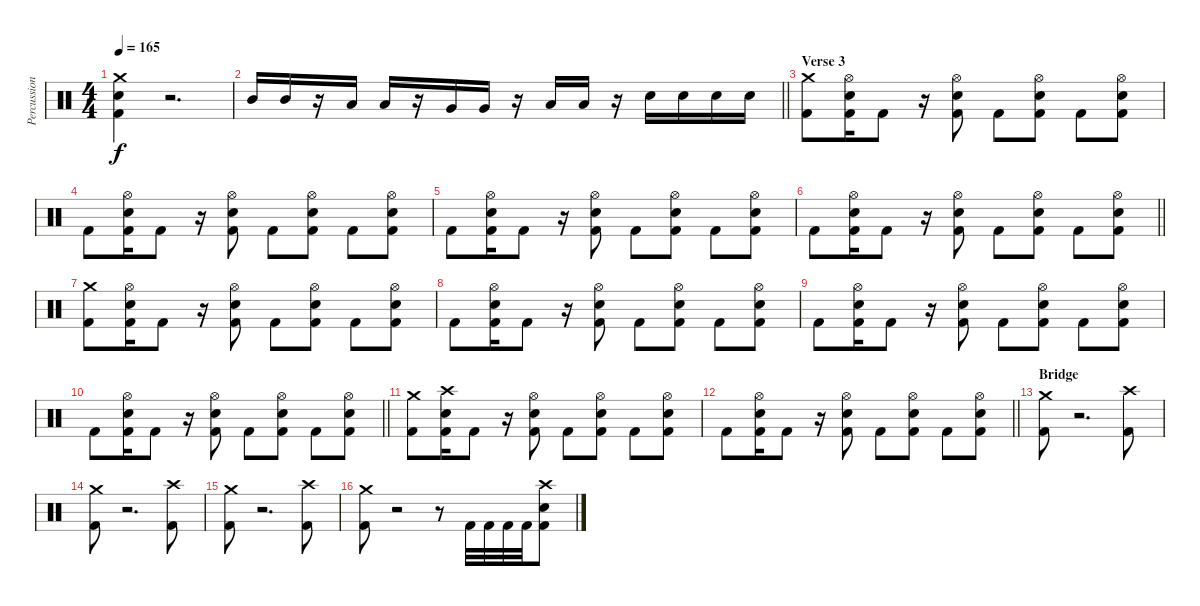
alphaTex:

\track ("Percussion" "Percussion") {instrument percussion}
\staff {score}
\articulation defaults
\ts (4 4)
\tempo 165
\clef neutral
\ks c
("Crash medium (hit)" "Kick (hit) 2" "Snare (hit) 2").4{dy f} r.2{d} |
\barLineRight lightlight "Mid Tom (hit)".16 "Mid Tom (hit)".16
r.16 "Low Tom (hit)".16 "Low Tom (hit)".16 r.16 "Very Low Tom (hit)".16 "Very Low Tom (hit)".16 r.16 "Low Floor Tom (hit)".16 "Low Floor Tom (hit)".16 r.16 "Snare (hit) 2".16 "Snare (hit) 2".16 "Snare (hit) 2".16 "Snare (hit) 2".16 |
\section ("" "Verse 3")
("Crash medium (hit)" "Kick (hit) 2").8 ("Hi-Hat (open)" "Kick (hit) 2" "Snare (hit) 2").16 "Kick (hit) 2".8 r.16 ("Hi-Hat (open)" "Kick (hit) 2" "Snare (hit) 2").8 "Kick (hit) 2".8 ("Hi-Hat (open)" "Kick (hit) 2" "Snare (hit) 2").8 "Kick (hit) 2".8 ("Hi-Hat (open)" "Kick (hit) 2" "Snare (hit) 2").8 |
"Kick (hit) 2".8 ("Hi-Hat (open)" "Kick (hit) 2" "Snare (hit) 2").16 "Kick (hit) 2".8 r.16 ("Hi-Hat (open)" "Kick (hit) 2" "Snare (hit) 2").8 "Kick (hit) 2".8 ("Hi-Hat (open)" "Kick (hit) 2" "Snare (hit) 2").8 "Kick (hit) 2".8 ("Hi-Hat (open)" "Kick (hit) 2" "Snare (hit) 2").8 |
"Kick (hit) 2".8 ("Hi-Hat (open)" "Kick (hit) 2" "Snare (hit) 2").16 "Kick (hit) 2".8 r.16 ("Hi-Hat (open)" "Kick (hit) 2" "Snare (hit) 2").8 "Kick (hit) 2".8 ("Hi-Hat (open)" "Kick (hit) 2" "Snare (hit) 2").8 "Kick (hit) 2".8 ("Hi-Hat (open)" "Kick (hit) 2" "Snare (hit) 2").8 |
\barLineRight lightlight "Kick (hit) 2".8
("Hi-Hat (open)" "Kick (hit) 2" "Snare (hit) 2").16 "Kick (hit) 2".8 r.16 ("Hi-Hat (open)" "Kick (hit) 2" "Snare (hit) 2").8 "Kick (hit) 2".8 ("Hi-Hat (open)" "Kick (hit) 2" "Snare (hit) 2").8 "Kick (hit) 2".8 ("Hi-Hat (open)" "Kick (hit) 2" "Snare (hit) 2").8 |
("Crash medium (hit)" "Kick (hit) 2").8 ("Hi-Hat (open)" "Kick (hit) 2" "Snare (hit) 2").16 "Kick (hit) 2".8 r.16 ("Hi-Hat (open)" "Kick (hit) 2" "Snare (hit) 2").8 "Kick (hit) 2".8 ("Hi-Hat (open)" "Kick (hit) 2" "Snare (hit) 2").8 "Kick (hit) 2".8 ("Hi-Hat (open)" "Kick (hit) 2" "Snare (hit) 2").8 |
"Kick (hit) 2".8 ("Hi-Hat (open)" "Kick (hit) 2" "Snare (hit) 2").16 "Kick (hit) 2".8 r.16 ("Hi-Hat (open)" "Kick (hit) 2" "Snare (hit) 2").8 "Kick (hit) 2".8 ("Hi-Hat (open)" "Kick (hit) 2" "Snare (hit) 2").8 "Kick (hit) 2".8 ("Hi-Hat (open)" "Kick (hit) 2" "Snare (hit) 2").8 |
"Kick (hit) 2".8 ("Hi-Hat (open)" "Kick (hit) 2" "Snare (hit) 2").16 "Kick (hit) 2".8 r.16 ("Hi-Hat (open)" "Kick (hit) 2" "Snare (hit) 2").8 "Kick (hit) 2".8 ("Hi-Hat (open)" "Kick (hit) 2" "Snare (hit) 2").8 "Kick (hit) 2".8 ("Hi-Hat (open)" "Kick (hit) 2" "Snare (hit) 2").8 |
\barLineRight lightlight "Kick (hit) 2".8
("Hi-Hat (open)" "Kick (hit) 2" "Snare (hit) 2").16 "Kick (hit) 2".8 r.16 ("Hi-Hat (open)" "Kick (hit) 2" "Snare (hit) 2").8 "Kick (hit) 2".8 ("Hi-Hat (open)" "Kick (hit) 2" "Snare (hit) 2").8 "Kick (hit) 2".8 ("Hi-Hat (open)" "Kick (hit) 2" "Snare (hit) 2").8 |
("Crash medium (hit)" "Kick (hit) 2").8 ("Crash high (hit)" "Kick (hit) 2" "Snare (hit) 2").16 "Kick (hit) 2".8 r.16 ("Hi-Hat (open)" "Kick (hit) 2" "Snare (hit) 2").8 "Kick (hit) 2".8 ("Hi-Hat (open)" "Kick (hit) 2" "Snare (hit) 2").8 "Kick (hit) 2".8 ("Hi-Hat (open)" "Kick (hit) 2" "Snare (hit) 2").8 |
\barLineRight lightlight "Kick (hit) 2".8
("Hi-Hat (open)" "Kick (hit) 2" "Snare (hit) 2").16 "Kick (hit) 2".8 r.16 ("Hi-Hat (open)" "Kick (hit) 2" "Snare (hit) 2").8 "Kick (hit) 2".8 ("Hi-Hat (open)" "Kick (hit) 2" "Snare (hit) 2").8 "Kick (hit) 2".8 ("Hi-Hat (open)" "Kick (hit) 2" "Snare (hit) 2").8 |
\section ("" "Bridge")
("Crash medium (hit)" "Kick (hit) 2").8 r.2{d} ("Crash high (hit)" "Kick (hit) 2").8 |
("Crash medium (hit)" "Kick (hit) 2").8 r.2{d} ("Crash high (hit)" "Kick (hit) 2").8 |
("Crash medium (hit)" "Kick (hit) 2").8 r.2{d} ("Crash high (hit)" "Kick (hit) 2").8 |
("Crash medium (hit)" "Kick (hit) 2").8 r.2 r.8 "Kick (hit) 2".32 "Kick (hit) 2".32 "Kick (hit) 2".32 "Kick (hit) 2".32 ("Crash high (hit)" "Kick (hit) 2" "Snare (hit) 2").8
